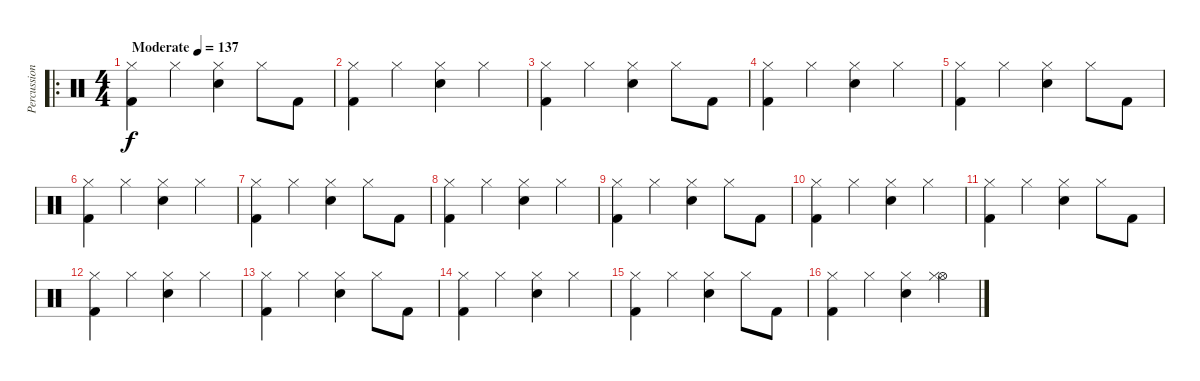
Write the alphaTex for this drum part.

\track ("Percussion" "Percussion") {instrument percussion}
\staff {score}
\articulation defaults
\ro
\ts (4 4)
\tempo (137 "Moderate")
\clef neutral
\ks c
("Hi-Hat (closed)" "Kick (hit) 2").4{dy f} "Hi-Hat (closed)".4 ("Hi-Hat (closed)" "Snare (hit) 2").4 "Hi-Hat (closed)".8 "Kick (hit) 2".8 |
("Hi-Hat (closed)" "Kick (hit) 2").4 "Hi-Hat (closed)".4 ("Hi-Hat (closed)" "Snare (hit) 2").4 "Hi-Hat (closed)".4 |
("Hi-Hat (closed)" "Kick (hit) 2").4 "Hi-Hat (closed)".4 ("Hi-Hat (closed)" "Snare (hit) 2").4 "Hi-Hat (closed)".8 "Kick (hit) 2".8 |
("Hi-Hat (closed)" "Kick (hit) 2").4 "Hi-Hat (closed)".4 ("Hi-Hat (closed)" "Snare (hit) 2").4 "Hi-Hat (closed)".4 |
("Hi-Hat (closed)" "Kick (hit) 2").4 "Hi-Hat (closed)".4 ("Hi-Hat (closed)" "Snare (hit) 2").4 "Hi-Hat (closed)".8 "Kick (hit) 2".8 |
("Hi-Hat (closed)" "Kick (hit) 2").4 "Hi-Hat (closed)".4 ("Hi-Hat (closed)" "Snare (hit) 2").4 "Hi-Hat (closed)".4 |
("Hi-Hat (closed)" "Kick (hit) 2").4 "Hi-Hat (closed)".4 ("Hi-Hat (closed)" "Snare (hit) 2").4 "Hi-Hat (closed)".8 "Kick (hit) 2".8 |
("Hi-Hat (closed)" "Kick (hit) 2").4 "Hi-Hat (closed)".4 ("Hi-Hat (closed)" "Snare (hit) 2").4 "Hi-Hat (closed)".4 |
("Hi-Hat (closed)" "Kick (hit) 2").4 "Hi-Hat (closed)".4 ("Hi-Hat (closed)" "Snare (hit) 2").4 "Hi-Hat (closed)".8 "Kick (hit) 2".8 |
("Hi-Hat (closed)" "Kick (hit) 2").4 "Hi-Hat (closed)".4 ("Hi-Hat (closed)" "Snare (hit) 2").4 "Hi-Hat (closed)".4 |
("Hi-Hat (closed)" "Kick (hit) 2").4 "Hi-Hat (closed)".4 ("Hi-Hat (closed)" "Snare (hit) 2").4 "Hi-Hat (closed)".8 "Kick (hit) 2".8 |
("Hi-Hat (closed)" "Kick (hit) 2").4 "Hi-Hat (closed)".4 ("Hi-Hat (closed)" "Snare (hit) 2").4 "Hi-Hat (closed)".4 |
("Hi-Hat (closed)" "Kick (hit) 2").4 "Hi-Hat (closed)".4 ("Hi-Hat (closed)" "Snare (hit) 2").4 "Hi-Hat (closed)".8 "Kick (hit) 2".8 |
("Hi-Hat (closed)" "Kick (hit) 2").4 "Hi-Hat (closed)".4 ("Hi-Hat (closed)" "Snare (hit) 2").4 "Hi-Hat (closed)".4 |
("Hi-Hat (closed)" "Kick (hit) 2").4 "Hi-Hat (closed)".4 ("Hi-Hat (closed)" "Snare (hit) 2").4 "Hi-Hat (closed)".8 "Kick (hit) 2".8 |
("Hi-Hat (closed)" "Kick (hit) 2").4 "Hi-Hat (closed)".4 ("Hi-Hat (closed)" "Snare (hit) 2").4 ("Hi-Hat (open)" "Hi-Hat (closed)").4
